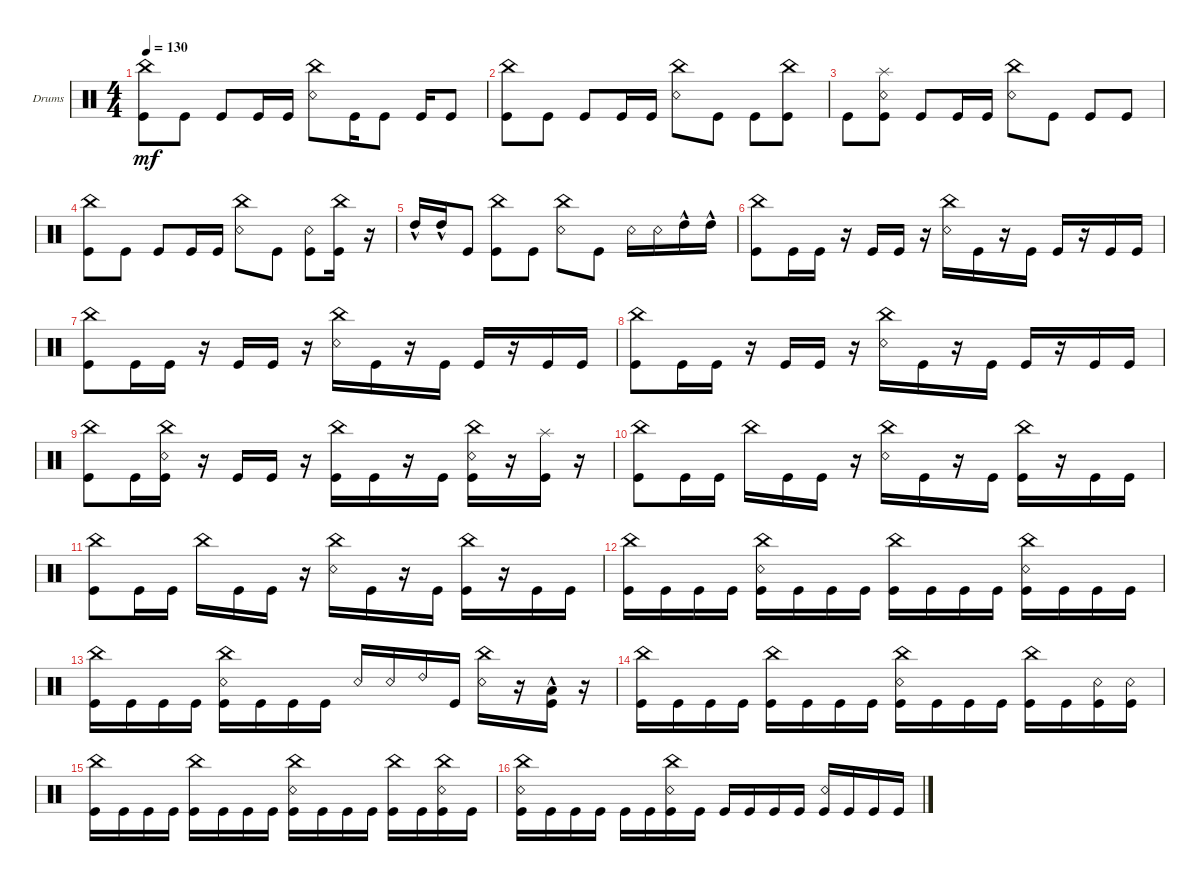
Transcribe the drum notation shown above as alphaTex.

\defaultSystemsLayout 4
\bracketExtendMode groupsimilarinstruments
\firstSystemTrackNameOrientation horizontal
\otherSystemsTrackNameOrientation horizontal
\track ("Drumkit" "Drums") {instrument percussion}
\staff {score}
\articulation defaults
\ts (4 4)
\tempo 130
\clef neutral
\ks c
("China (hit)" "Kick (hit)").8{dy mf} "Kick (hit)".8 "Kick (hit)".8 "Kick (hit)".16 "Kick (hit)".16 ("Snare (rim shot)" "China (hit)").8 "Kick (hit)".16 "Kick (hit)".8 "Kick (hit)".16 "Kick (hit)".8 |
("China (hit)" "Kick (hit)").8 "Kick (hit)".8 "Kick (hit)".8 "Kick (hit)".16 "Kick (hit)".16 ("Snare (rim shot)" "China (hit)").8 "Kick (hit)".8 "Kick (hit)".8 ("Kick (hit)" "China (hit)").8 |
"Kick (hit)".8 ("Kick (hit)" "Snare (rim shot)" "Splash (hit)").8 "Kick (hit)".8 "Kick (hit)".16 "Kick (hit)".16 ("Snare (rim shot)" "China (hit)").8 "Kick (hit)".8 "Kick (hit)".8 "Kick (hit)".8 |
("China (hit)" "Kick (hit)").8 "Kick (hit)".8 "Kick (hit)".8 "Kick (hit)".16 "Kick (hit)".16 ("Snare (rim shot)" "China (hit)").8 "Kick (hit)".8 ("Kick (hit)" "Snare (rim shot)").8 ("Kick (hit)" "China (hit)").16 r.16 |
"High Tom (hit)"{hac}.16 "High Tom (hit)"{hac}.16 "Kick (hit)".8 ("Kick (hit)" "China (hit)").8 "Kick (hit)".8 ("Snare (rim shot)" "China (hit)").8 "Kick (hit)".8 "Snare (rim shot)".16 "Snare (rim shot)".16 "High Tom (hit)"{hac}.16 "High Tom (hit)"{hac}.16 |
("China (hit)" "Kick (hit)").8 "Kick (hit)".16 "Kick (hit)".16 r.16 "Kick (hit)".16 "Kick (hit)".16 r.16 ("Snare (rim shot)" "China (hit)").16 "Kick (hit)".16 r.16 "Kick (hit)".16 "Kick (hit)".16 r.16 "Kick (hit)".16 "Kick (hit)".16 |
("China (hit)" "Kick (hit)").8 "Kick (hit)".16 "Kick (hit)".16 r.16 "Kick (hit)".16 "Kick (hit)".16 r.16 ("Snare (rim shot)" "China (hit)").16 "Kick (hit)".16 r.16 "Kick (hit)".16 "Kick (hit)".16 r.16 "Kick (hit)".16 "Kick (hit)".16 |
("China (hit)" "Kick (hit)").8 "Kick (hit)".16 "Kick (hit)".16 r.16 "Kick (hit)".16 "Kick (hit)".16 r.16 ("Snare (rim shot)" "China (hit)").16 "Kick (hit)".16 r.16 "Kick (hit)".16 "Kick (hit)".16 r.16 "Kick (hit)".16 "Kick (hit)".16 |
("China (hit)" "Kick (hit)").8 "Kick (hit)".16 ("Kick (hit)" "Snare (rim shot)" "China (hit)").16 r.16 "Kick (hit)".16 "Kick (hit)".16 r.16 ("China (hit)" "Kick (hit)").16 "Kick (hit)".16 r.16 "Kick (hit)".16 ("Kick (hit)" "Snare (rim shot)" "China (hit)").16 r.16 ("Kick (hit)" "Splash (hit)").16 r.16 |
("China (hit)" "Kick (hit)").8 "Kick (hit)".16 "Kick (hit)".16 "China (hit)".16 "Kick (hit)".16 "Kick (hit)".16 r.16 ("Snare (rim shot)" "China (hit)").16 "Kick (hit)".16 r.16 "Kick (hit)".16 ("Kick (hit)" "China (hit)").16 r.16 "Kick (hit)".16 "Kick (hit)".16 |
("China (hit)" "Kick (hit)").8 "Kick (hit)".16 "Kick (hit)".16 "China (hit)".16 "Kick (hit)".16 "Kick (hit)".16 r.16 ("Snare (rim shot)" "China (hit)").16 "Kick (hit)".16 r.16 "Kick (hit)".16 ("Kick (hit)" "China (hit)").16 r.16 "Kick (hit)".16 "Kick (hit)".16 |
("Kick (hit)" "China (hit)").16 "Kick (hit)".16 "Kick (hit)".16 "Kick (hit)".16 ("Kick (hit)" "Snare (rim shot)" "China (hit)").16 "Kick (hit)".16 "Kick (hit)".16 "Kick (hit)".16 ("Kick (hit)" "China (hit)").16 "Kick (hit)".16 "Kick (hit)".16 "Kick (hit)".16 ("Kick (hit)" "China (hit)" "Snare (rim shot)").16 "Kick (hit)".16 "Kick (hit)".16 "Kick (hit)".16 |
("Kick (hit)" "China (hit)").16 "Kick (hit)".16 "Kick (hit)".16 "Kick (hit)".16 ("Kick (hit)" "Snare (rim shot)" "China (hit)").16 "Kick (hit)".16 "Kick (hit)".16 "Kick (hit)".16 "Snare (rim shot)".16 "Snare (rim shot)".16 "Ride (bell) 2".16 "Kick (hit)".16 ("China (hit)" "Snare (rim shot)").16 r.16 ("Low Tom (hit)" "Kick (hit)"{hac}).16 r.16 |
("Kick (hit)" "China (hit)").16 "Kick (hit)".16 "Kick (hit)".16 "Kick (hit)".16 ("Kick (hit)" "China (hit)").16 "Kick (hit)".16 "Kick (hit)".16 "Kick (hit)".16 ("Kick (hit)" "Snare (rim shot)" "China (hit)").16 "Kick (hit)".16 "Kick (hit)".16 "Kick (hit)".16 ("Kick (hit)" "China (hit)").16 "Kick (hit)".16 ("Snare (rim shot)" "Kick (hit)").16 ("Kick (hit)" "Snare (rim shot)").16 |
("Kick (hit)" "China (hit)").16 "Kick (hit)".16 "Kick (hit)".16 "Kick (hit)".16 ("Kick (hit)" "China (hit)").16 "Kick (hit)".16 "Kick (hit)".16 "Kick (hit)".16 ("Kick (hit)" "Snare (rim shot)" "China (hit)").16 "Kick (hit)".16 "Kick (hit)".16 "Kick (hit)".16 ("Kick (hit)" "China (hit)").16 "Kick (hit)".16 ("Snare (rim shot)" "Kick (hit)" "China (hit)").16 "Kick (hit)".16 |
("Kick (hit)" "Snare (rim shot)" "China (hit)").16 "Kick (hit)".16 "Kick (hit)".16 "Kick (hit)".16 "Kick (hit)".16 "Kick (hit)".16 ("Kick (hit)" "Snare (rim shot)" "China (hit)").16 "Kick (hit)".16 "Kick (hit)".16 "Kick (hit)".16 "Kick (hit)".16 "Kick (hit)".16 ("Kick (hit)" "Snare (rim shot)").16 "Kick (hit)".16 "Kick (hit)".16 "Kick (hit)".16
